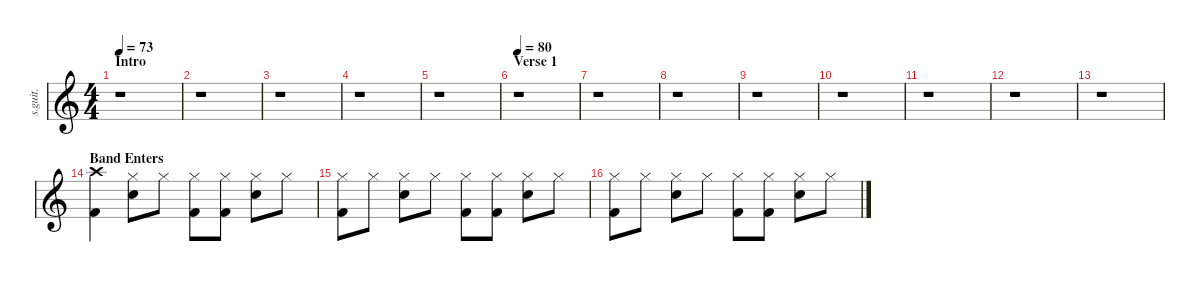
\defaultSystemsLayout 4
\hideDynamics
\bracketExtendMode nobrackets
\track ("Tré Cool" "s.guit.") {instrument percussion}
\staff {score}
\articulation defaults
\ts (4 4)
\beaming (8 2 2 2 2)
\section ("" "Intro")
\tempo 73
\clef g2
\ks c
r.1{dy f} |
r.1 |
r.1 |
r.1 |
r.1 |
\section ("" "Verse 1")
\tempo 80
r.1 |
r.1 |
r.1 |
r.1 |
r.1 |
r.1 |
r.1 |
r.1 |
\section ("" "Band Enters")
("Crash high (hit)" "Kick (hit) 2").4{lyrics (0 "") lyrics (1 "") lyrics (2 "") lyrics (3 "") lyrics (4 "")} ("Hi-Hat (closed)" "Snare (hit) 2").8{lyrics (0 "") lyrics (1 "") lyrics (2 "") lyrics (3 "") lyrics (4 "")} "Hi-Hat (closed)".8{lyrics (0 "") lyrics (1 "") lyrics (2 "") lyrics (3 "") lyrics (4 "")} ("Hi-Hat (closed)" "Kick (hit) 2").8{lyrics (0 "") lyrics (1 "") lyrics (2 "") lyrics (3 "") lyrics (4 "")} ("Hi-Hat (closed)" "Kick (hit) 2").8{lyrics (0 "") lyrics (1 "") lyrics (2 "") lyrics (3 "") lyrics (4 "")} ("Hi-Hat (closed)" "Snare (hit) 2").8{lyrics (0 "") lyrics (1 "") lyrics (2 "") lyrics (3 "") lyrics (4 "")} "Hi-Hat (closed)".8{lyrics (0 "") lyrics (1 "") lyrics (2 "") lyrics (3 "") lyrics (4 "")} |
("Hi-Hat (closed)" "Kick (hit) 2").8{lyrics (0 "") lyrics (1 "") lyrics (2 "") lyrics (3 "") lyrics (4 "")} "Hi-Hat (closed)".8{lyrics (0 "") lyrics (1 "") lyrics (2 "") lyrics (3 "") lyrics (4 "")} ("Hi-Hat (closed)" "Snare (hit) 2").8{lyrics (0 "") lyrics (1 "") lyrics (2 "") lyrics (3 "") lyrics (4 "")} "Hi-Hat (closed)".8{lyrics (0 "") lyrics (1 "") lyrics (2 "") lyrics (3 "") lyrics (4 "")} ("Hi-Hat (closed)" "Kick (hit) 2").8{lyrics (0 "") lyrics (1 "") lyrics (2 "") lyrics (3 "") lyrics (4 "")} ("Hi-Hat (closed)" "Kick (hit) 2").8{lyrics (0 "") lyrics (1 "") lyrics (2 "") lyrics (3 "") lyrics (4 "")} ("Hi-Hat (closed)" "Snare (hit) 2").8{lyrics (0 "") lyrics (1 "") lyrics (2 "") lyrics (3 "") lyrics (4 "")} "Hi-Hat (closed)".8{lyrics (0 "") lyrics (1 "") lyrics (2 "") lyrics (3 "") lyrics (4 "")} |
("Hi-Hat (closed)" "Kick (hit) 2").8{lyrics (0 "") lyrics (1 "") lyrics (2 "") lyrics (3 "") lyrics (4 "")} "Hi-Hat (closed)".8{lyrics (0 "") lyrics (1 "") lyrics (2 "") lyrics (3 "") lyrics (4 "")} ("Hi-Hat (closed)" "Snare (hit) 2").8{lyrics (0 "") lyrics (1 "") lyrics (2 "") lyrics (3 "") lyrics (4 "")} "Hi-Hat (closed)".8{lyrics (0 "") lyrics (1 "") lyrics (2 "") lyrics (3 "") lyrics (4 "")} ("Hi-Hat (closed)" "Kick (hit) 2").8{lyrics (0 "") lyrics (1 "") lyrics (2 "") lyrics (3 "") lyrics (4 "")} ("Hi-Hat (closed)" "Kick (hit) 2").8{lyrics (0 "") lyrics (1 "") lyrics (2 "") lyrics (3 "") lyrics (4 "")} ("Hi-Hat (closed)" "Snare (hit) 2").8{lyrics (0 "") lyrics (1 "") lyrics (2 "") lyrics (3 "") lyrics (4 "")} "Hi-Hat (closed)".8{lyrics (0 "") lyrics (1 "") lyrics (2 "") lyrics (3 "") lyrics (4 "")}
